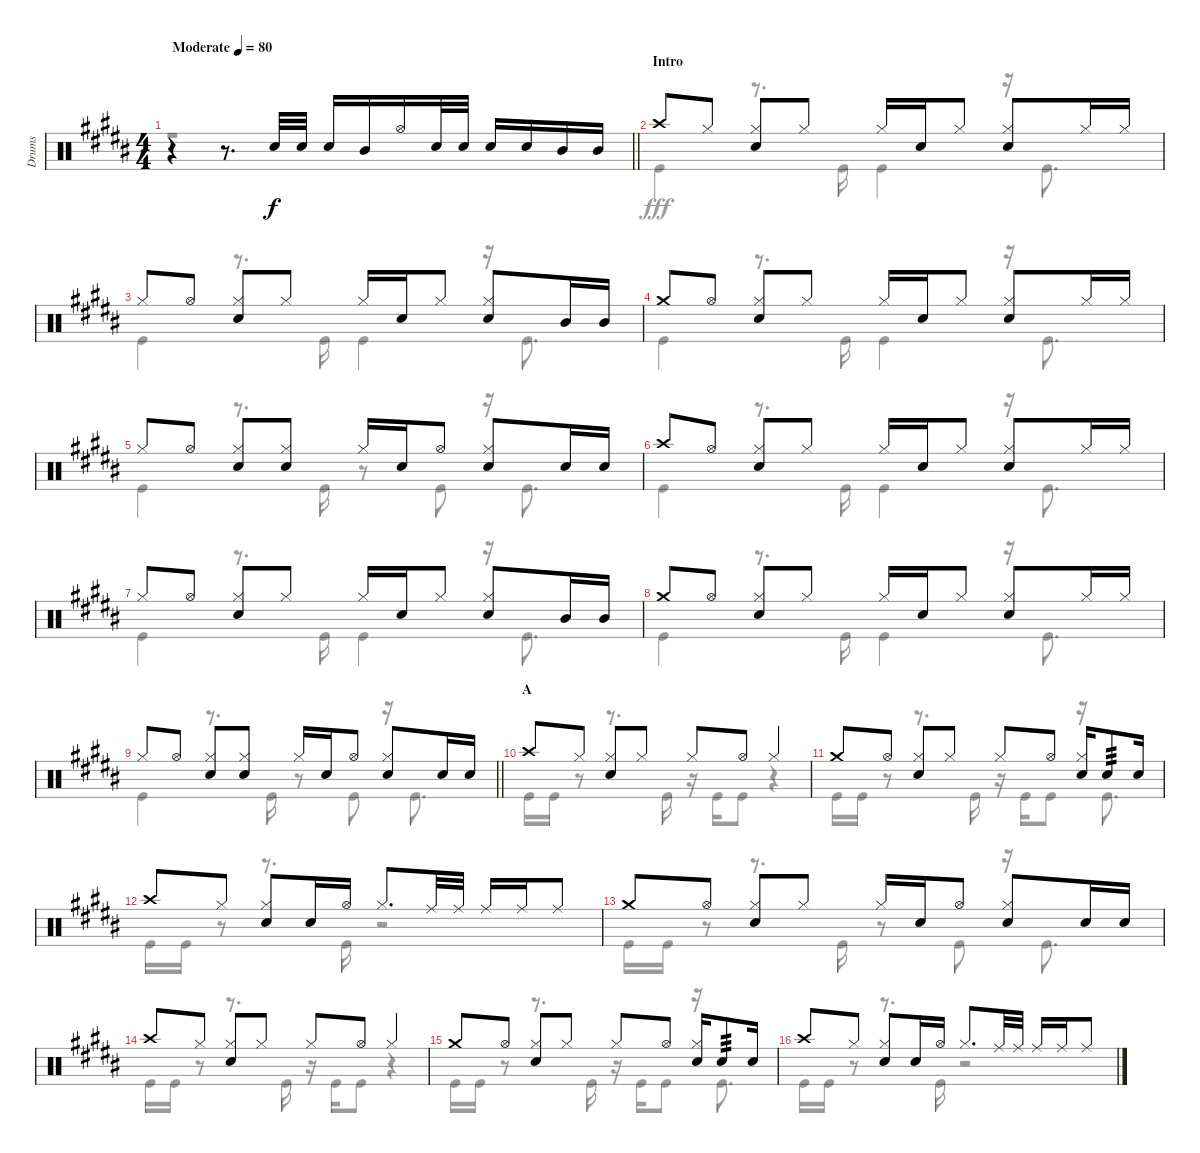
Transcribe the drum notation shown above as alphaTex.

\track ("Drums" "Drums") {instrument percussion}
\staff {score}
\articulation defaults
\voice
\ts (4 4)
\tempo (80 "Moderate")
\clef neutral
\barLineRight lightlight
\ks b
r.4{dy f} r.8{d} "Snare (hit) 2".32 "Snare (hit) 2".32 "Snare (hit) 2".16 "Mid Tom (hit)".16 "Hi-Hat (open)".16 "Snare (hit) 2".32 "Snare (hit) 2".32 "Snare (hit) 2".16 "Snare (hit) 2".16 "Mid Tom (hit)".16 "Mid Tom (hit)".16 |
\section ("" "Intro")
"Crash high (hit)".8 "Hi-Hat (closed)".8 ("Hi-Hat (closed)" "Snare (hit) 2").8 "Hi-Hat (closed)".8 "Hi-Hat (closed)".16 "Snare (hit) 2".16 "Hi-Hat (closed)".8 ("Hi-Hat (closed)" "Snare (hit) 2").8 "Hi-Hat (closed)".16 "Hi-Hat (closed)".16 |
"Hi-Hat (closed)".8 "Hi-Hat (open)".8 ("Hi-Hat (closed)" "Snare (hit) 2").8 "Hi-Hat (closed)".8 "Hi-Hat (closed)".16 "Snare (hit) 2".16 "Hi-Hat (closed)".8 ("Hi-Hat (closed)" "Snare (hit) 2").8 "Mid Tom (hit)".16 "Mid Tom (hit)".16 |
"Crash medium (hit)".8 "Hi-Hat (open)".8 ("Hi-Hat (closed)" "Snare (hit) 2").8 "Hi-Hat (closed)".8 "Hi-Hat (closed)".16 "Snare (hit) 2".16 "Hi-Hat (closed)".8 ("Hi-Hat (closed)" "Snare (hit) 2").8 "Hi-Hat (closed)".16 "Hi-Hat (closed)".16 |
"Hi-Hat (closed)".8 "Hi-Hat (open)".8 ("Hi-Hat (closed)" "Snare (hit) 2").8 ("Hi-Hat (closed)" "Snare (hit) 2").8 "Hi-Hat (closed)".16 "Snare (hit) 2".16 "Hi-Hat (open)".8 ("Hi-Hat (closed)" "Snare (hit) 2").8 "Snare (hit) 2".16 "Snare (hit) 2".16 |
"Crash high (hit)".8 "Hi-Hat (open)".8 ("Hi-Hat (closed)" "Snare (hit) 2").8 "Hi-Hat (closed)".8 "Hi-Hat (closed)".16 "Snare (hit) 2".16 "Hi-Hat (closed)".8 ("Hi-Hat (closed)" "Snare (hit) 2").8 "Hi-Hat (closed)".16 "Hi-Hat (closed)".16 |
"Hi-Hat (closed)".8 "Hi-Hat (open)".8 ("Hi-Hat (closed)" "Snare (hit) 2").8 "Hi-Hat (closed)".8 "Hi-Hat (closed)".16 "Snare (hit) 2".16 "Hi-Hat (closed)".8 ("Hi-Hat (closed)" "Snare (hit) 2").8 "Mid Tom (hit)".16 "Mid Tom (hit)".16 |
"Crash medium (hit)".8 "Hi-Hat (open)".8 ("Hi-Hat (closed)" "Snare (hit) 2").8 "Hi-Hat (closed)".8 "Hi-Hat (closed)".16 "Snare (hit) 2".16 "Hi-Hat (closed)".8 ("Hi-Hat (closed)" "Snare (hit) 2").8 "Hi-Hat (closed)".16 "Hi-Hat (closed)".16 |
\barLineRight lightlight "Hi-Hat (closed)".8 "Hi-Hat (open)".8
("Hi-Hat (closed)" "Snare (hit) 2").8 ("Hi-Hat (closed)" "Snare (hit) 2").8 "Hi-Hat (closed)".16 "Snare (hit) 2".16 "Hi-Hat (open)".8 ("Hi-Hat (closed)" "Snare (hit) 2").8 "Snare (hit) 2".16 "Snare (hit) 2".16 |
\section ("" "A")
"Crash high (hit)".8 "Hi-Hat (closed)".8 ("Hi-Hat (closed)" "Snare (hit) 2").8 "Hi-Hat (closed)".8 "Hi-Hat (closed)".8 "Hi-Hat (open)".8 "Hi-Hat (closed)".4 |
"Crash medium (hit)".8 "Hi-Hat (open)".8 ("Hi-Hat (closed)" "Snare (hit) 2").8 "Hi-Hat (closed)".8 "Hi-Hat (closed)".8 "Hi-Hat (open)".8 ("Hi-Hat (closed)" "Snare (hit) 2").16 "Snare (hit) 2".8{tp 3} "Snare (hit) 2".16 |
"Crash high (hit)".8 "Hi-Hat (closed)".8 ("Hi-Hat (closed)" "Snare (hit) 2").8 "Snare (hit) 2".16 "Hi-Hat (open)".16 "Hi-Hat (closed)".8{d} "Ride (middle)".32 "Ride (middle)".32 "Ride (middle)".16 "Ride (middle)".16 "Ride (middle)".8 |
"Crash medium (hit)".8 "Hi-Hat (open)".8 ("Hi-Hat (closed)" "Snare (hit) 2").8 "Hi-Hat (closed)".8 "Hi-Hat (closed)".16 "Snare (hit) 2".16 "Hi-Hat (open)".8 ("Hi-Hat (closed)" "Snare (hit) 2").8 "Snare (hit) 2".16 "Snare (hit) 2".16 |
"Crash high (hit)".8 "Hi-Hat (closed)".8 ("Hi-Hat (closed)" "Snare (hit) 2").8 "Hi-Hat (closed)".8 "Hi-Hat (closed)".8 "Hi-Hat (open)".8 "Hi-Hat (closed)".4 |
"Crash medium (hit)".8 "Hi-Hat (open)".8 ("Hi-Hat (closed)" "Snare (hit) 2").8 "Hi-Hat (closed)".8 "Hi-Hat (closed)".8 "Hi-Hat (open)".8 ("Hi-Hat (closed)" "Snare (hit) 2").16 "Snare (hit) 2".8{tp 3} "Snare (hit) 2".16 |
"Crash high (hit)".8 "Hi-Hat (closed)".8 ("Hi-Hat (closed)" "Snare (hit) 2").8 "Snare (hit) 2".16 "Hi-Hat (open)".16 "Hi-Hat (closed)".8{d} "Ride (middle)".32 "Ride (middle)".32 "Ride (middle)".16 "Ride (middle)".16 "Ride (middle)".8
\voice
\clef neutral
\ottava regular
\simile none
\barLineRight lightlight
\ks b
r.1{dy fff} |
"Kick (hit)".4 r.8{d} "Kick (hit)".16 "Kick (hit)".4 r.16 "Kick (hit)".8{d} |
"Kick (hit)".4 r.8{d} "Kick (hit)".16 "Kick (hit)".4 r.16 "Kick (hit)".8{d} |
"Kick (hit)".4 r.8{d} "Kick (hit)".16 "Kick (hit)".4 r.16 "Kick (hit)".8{d} |
"Kick (hit)".4 r.8{d} "Kick (hit)".16 r.8 "Kick (hit)".8 r.16 "Kick (hit)".8{d} |
"Kick (hit)".4 r.8{d} "Kick (hit)".16 "Kick (hit)".4 r.16 "Kick (hit)".8{d} |
"Kick (hit)".4 r.8{d} "Kick (hit)".16 "Kick (hit)".4 r.16 "Kick (hit)".8{d} |
"Kick (hit)".4 r.8{d} "Kick (hit)".16 "Kick (hit)".4 r.16 "Kick (hit)".8{d} |
\barLineRight lightlight "Kick (hit)".4
r.8{d} "Kick (hit)".16 r.8 "Kick (hit)".8 r.16 "Kick (hit)".8{d} |
"Kick (hit)".16 "Kick (hit)".16 r.8 r.8{d} "Kick (hit)".16 r.16 "Kick (hit)".16 "Kick (hit)".8 r.4 |
"Kick (hit)".16 "Kick (hit)".16 r.8 r.8{d} "Kick (hit)".16 r.16 "Kick (hit)".16 "Kick (hit)".8 r.16 "Kick (hit)".8{d} |
"Kick (hit)".16 "Kick (hit)".16 r.8 r.8{d} "Kick (hit)".16 r.2 |
"Kick (hit)".16 "Kick (hit)".16 r.8 r.8{d} "Kick (hit)".16 r.8 "Kick (hit)".8 r.16 "Kick (hit)".8{d} |
"Kick (hit)".16 "Kick (hit)".16 r.8 r.8{d} "Kick (hit)".16 r.16 "Kick (hit)".16 "Kick (hit)".8 r.4 |
"Kick (hit)".16 "Kick (hit)".16 r.8 r.8{d} "Kick (hit)".16 r.16 "Kick (hit)".16 "Kick (hit)".8 r.16 "Kick (hit)".8{d} |
"Kick (hit)".16 "Kick (hit)".16 r.8 r.8{d} "Kick (hit)".16 r.2
